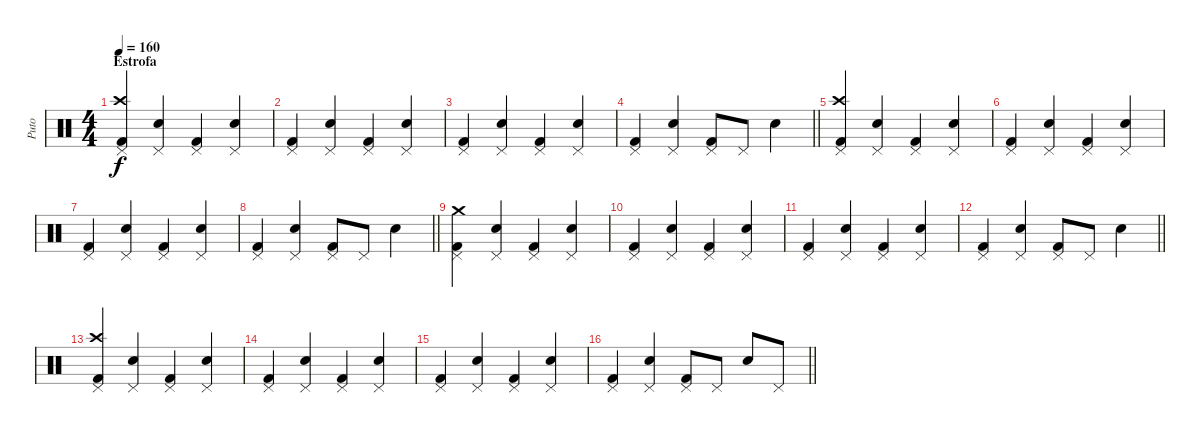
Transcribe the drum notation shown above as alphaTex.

\track ("Puto" "Puto") {instrument percussion}
\staff {score}
\articulation defaults
\ts (4 4)
\section ("" "Estrofa")
\tempo 160
\clef neutral
\ks c
("Kick (hit) 2" "Crash high (hit)" "Pedal Hi-Hat (hit)").4{dy f} ("Snare (hit) 2" "Pedal Hi-Hat (hit)").4 ("Kick (hit) 2" "Pedal Hi-Hat (hit)").4 ("Snare (hit) 2" "Pedal Hi-Hat (hit)").4 |
("Kick (hit) 2" "Pedal Hi-Hat (hit)").4 ("Snare (hit) 2" "Pedal Hi-Hat (hit)").4 ("Kick (hit) 2" "Pedal Hi-Hat (hit)").4 ("Snare (hit) 2" "Pedal Hi-Hat (hit)").4 |
("Kick (hit) 2" "Pedal Hi-Hat (hit)").4 ("Snare (hit) 2" "Pedal Hi-Hat (hit)").4 ("Kick (hit) 2" "Pedal Hi-Hat (hit)").4 ("Snare (hit) 2" "Pedal Hi-Hat (hit)").4 |
\barLineRight lightlight
("Kick (hit) 2" "Pedal Hi-Hat (hit)").4 ("Snare (hit) 2" "Pedal Hi-Hat (hit)").4 ("Kick (hit) 2" "Pedal Hi-Hat (hit)").8 "Pedal Hi-Hat (hit)".8 "Snare (hit) 2".4 |
("Kick (hit) 2" "Crash high (hit)" "Pedal Hi-Hat (hit)").4 ("Snare (hit) 2" "Pedal Hi-Hat (hit)").4 ("Kick (hit) 2" "Pedal Hi-Hat (hit)").4 ("Snare (hit) 2" "Pedal Hi-Hat (hit)").4 |
("Kick (hit) 2" "Pedal Hi-Hat (hit)").4 ("Snare (hit) 2" "Pedal Hi-Hat (hit)").4 ("Kick (hit) 2" "Pedal Hi-Hat (hit)").4 ("Snare (hit) 2" "Pedal Hi-Hat (hit)").4 |
("Kick (hit) 2" "Pedal Hi-Hat (hit)").4 ("Snare (hit) 2" "Pedal Hi-Hat (hit)").4 ("Kick (hit) 2" "Pedal Hi-Hat (hit)").4 ("Snare (hit) 2" "Pedal Hi-Hat (hit)").4 |
\barLineRight lightlight
("Kick (hit) 2" "Pedal Hi-Hat (hit)").4 ("Snare (hit) 2" "Pedal Hi-Hat (hit)").4 ("Kick (hit) 2" "Pedal Hi-Hat (hit)").8 "Pedal Hi-Hat (hit)".8 "Snare (hit) 2".4 |
("Kick (hit) 2" "Crash medium (hit)" "Pedal Hi-Hat (hit)").4 ("Snare (hit) 2" "Pedal Hi-Hat (hit)").4 ("Kick (hit) 2" "Pedal Hi-Hat (hit)").4 ("Snare (hit) 2" "Pedal Hi-Hat (hit)").4 |
("Kick (hit) 2" "Pedal Hi-Hat (hit)").4 ("Snare (hit) 2" "Pedal Hi-Hat (hit)").4 ("Kick (hit) 2" "Pedal Hi-Hat (hit)").4 ("Snare (hit) 2" "Pedal Hi-Hat (hit)").4 |
("Kick (hit) 2" "Pedal Hi-Hat (hit)").4 ("Snare (hit) 2" "Pedal Hi-Hat (hit)").4 ("Kick (hit) 2" "Pedal Hi-Hat (hit)").4 ("Snare (hit) 2" "Pedal Hi-Hat (hit)").4 |
\barLineRight lightlight
("Kick (hit) 2" "Pedal Hi-Hat (hit)").4 ("Snare (hit) 2" "Pedal Hi-Hat (hit)").4 ("Kick (hit) 2" "Pedal Hi-Hat (hit)").8 "Pedal Hi-Hat (hit)".8 "Snare (hit) 2".4 |
("Kick (hit) 2" "Crash high (hit)" "Pedal Hi-Hat (hit)").4 ("Snare (hit) 2" "Pedal Hi-Hat (hit)").4 ("Kick (hit) 2" "Pedal Hi-Hat (hit)").4 ("Snare (hit) 2" "Pedal Hi-Hat (hit)").4 |
("Kick (hit) 2" "Pedal Hi-Hat (hit)").4 ("Snare (hit) 2" "Pedal Hi-Hat (hit)").4 ("Kick (hit) 2" "Pedal Hi-Hat (hit)").4 ("Snare (hit) 2" "Pedal Hi-Hat (hit)").4 |
("Kick (hit) 2" "Pedal Hi-Hat (hit)").4 ("Snare (hit) 2" "Pedal Hi-Hat (hit)").4 ("Kick (hit) 2" "Pedal Hi-Hat (hit)").4 ("Snare (hit) 2" "Pedal Hi-Hat (hit)").4 |
\barLineRight lightlight
("Kick (hit) 2" "Pedal Hi-Hat (hit)").4 ("Snare (hit) 2" "Pedal Hi-Hat (hit)").4 ("Kick (hit) 2" "Pedal Hi-Hat (hit)").8 "Pedal Hi-Hat (hit)".8 "Snare (hit) 2".8 "Pedal Hi-Hat (hit)".8
